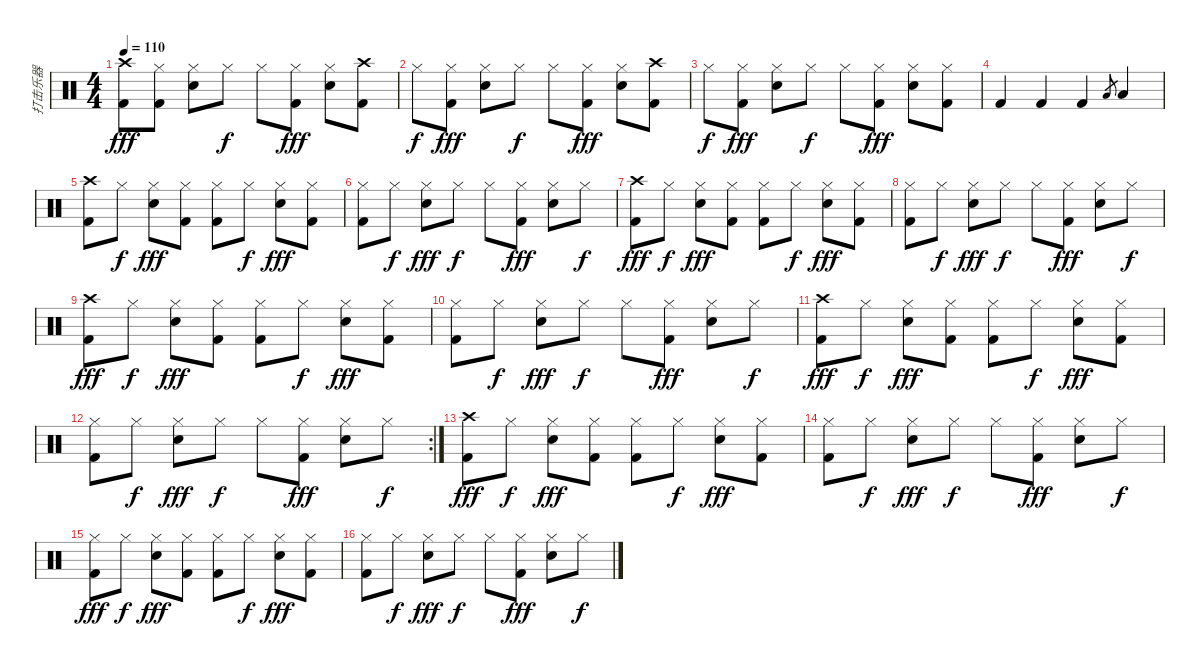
\track ("打击乐器" "打击乐器") {instrument percussion}
\staff {score}
\articulation defaults
\ts (4 4)
\tempo 110
\clef neutral
\ks c
("Crash high (hit)" "Kick (hit) 2").8{dy fff} ("Hi-Hat (closed)" "Kick (hit) 2").8 ("Hi-Hat (closed)" "Electric Snare (hit)").8 "Hi-Hat (closed)".8{dy f} "Hi-Hat (closed)".8 ("Hi-Hat (closed)" "Kick (hit) 2").8{dy fff} ("Hi-Hat (closed)" "Electric Snare (hit)").8 ("Crash high (hit)" "Kick (hit) 2").8 |
"Hi-Hat (closed)".8{dy f} ("Hi-Hat (closed)" "Kick (hit) 2").8{dy fff} ("Hi-Hat (closed)" "Electric Snare (hit)").8 "Hi-Hat (closed)".8{dy f} "Hi-Hat (closed)".8 ("Hi-Hat (closed)" "Kick (hit) 2").8{dy fff} ("Hi-Hat (closed)" "Electric Snare (hit)").8 ("Crash high (hit)" "Kick (hit) 2").8 |
"Hi-Hat (closed)".8{dy f} ("Hi-Hat (closed)" "Kick (hit) 2").8{dy fff} ("Hi-Hat (closed)" "Electric Snare (hit)").8 "Hi-Hat (closed)".8{dy f} "Hi-Hat (closed)".8 ("Hi-Hat (closed)" "Kick (hit) 2").8{dy fff} ("Hi-Hat (closed)" "Electric Snare (hit)").8 ("Hi-Hat (closed)" "Kick (hit) 2").8 |
"Kick (hit) 2".4 "Kick (hit) 2".4 "Kick (hit) 2".4 "Low Floor Tom (hit)".8{gr} "Low Floor Tom (hit)".4 |
("Crash high (hit)" "Kick (hit) 2").8 "Hi-Hat (closed)".8{dy f} ("Hi-Hat (closed)" "Electric Snare (hit)").8{dy fff} ("Hi-Hat (closed)" "Kick (hit) 2").8 ("Hi-Hat (closed)" "Kick (hit) 2").8 "Hi-Hat (closed)".8{dy f} ("Hi-Hat (closed)" "Electric Snare (hit)").8{dy fff} ("Hi-Hat (closed)" "Kick (hit) 2").8 |
("Hi-Hat (closed)" "Kick (hit) 2").8 "Hi-Hat (closed)".8{dy f} ("Hi-Hat (closed)" "Electric Snare (hit)").8{dy fff} "Hi-Hat (closed)".8{dy f} "Hi-Hat (closed)".8 ("Hi-Hat (closed)" "Kick (hit) 2").8{dy fff} ("Hi-Hat (closed)" "Electric Snare (hit)").8 "Hi-Hat (closed)".8{dy f} |
("Crash high (hit)" "Kick (hit) 2").8{dy fff} "Hi-Hat (closed)".8{dy f} ("Hi-Hat (closed)" "Electric Snare (hit)").8{dy fff} ("Hi-Hat (closed)" "Kick (hit) 2").8 ("Hi-Hat (closed)" "Kick (hit) 2").8 "Hi-Hat (closed)".8{dy f} ("Hi-Hat (closed)" "Electric Snare (hit)").8{dy fff} ("Hi-Hat (closed)" "Kick (hit) 2").8 |
("Hi-Hat (closed)" "Kick (hit) 2").8 "Hi-Hat (closed)".8{dy f} ("Hi-Hat (closed)" "Electric Snare (hit)").8{dy fff} "Hi-Hat (closed)".8{dy f} "Hi-Hat (closed)".8 ("Hi-Hat (closed)" "Kick (hit) 2").8{dy fff} ("Hi-Hat (closed)" "Electric Snare (hit)").8 "Hi-Hat (closed)".8{dy f} |
("Crash high (hit)" "Kick (hit) 2").8{dy fff} "Hi-Hat (closed)".8{dy f} ("Hi-Hat (closed)" "Electric Snare (hit)").8{dy fff} ("Hi-Hat (closed)" "Kick (hit) 2").8 ("Hi-Hat (closed)" "Kick (hit) 2").8 "Hi-Hat (closed)".8{dy f} ("Hi-Hat (closed)" "Electric Snare (hit)").8{dy fff} ("Hi-Hat (closed)" "Kick (hit) 2").8 |
("Hi-Hat (closed)" "Kick (hit) 2").8 "Hi-Hat (closed)".8{dy f} ("Hi-Hat (closed)" "Electric Snare (hit)").8{dy fff} "Hi-Hat (closed)".8{dy f} "Hi-Hat (closed)".8 ("Hi-Hat (closed)" "Kick (hit) 2").8{dy fff} ("Hi-Hat (closed)" "Electric Snare (hit)").8 "Hi-Hat (closed)".8{dy f} |
("Crash high (hit)" "Kick (hit) 2").8{dy fff} "Hi-Hat (closed)".8{dy f} ("Hi-Hat (closed)" "Electric Snare (hit)").8{dy fff} ("Hi-Hat (closed)" "Kick (hit) 2").8 ("Hi-Hat (closed)" "Kick (hit) 2").8 "Hi-Hat (closed)".8{dy f} ("Hi-Hat (closed)" "Electric Snare (hit)").8{dy fff} ("Hi-Hat (closed)" "Kick (hit) 2").8 |
\rc 2
("Hi-Hat (closed)" "Kick (hit) 2").8 "Hi-Hat (closed)".8{dy f} ("Hi-Hat (closed)" "Electric Snare (hit)").8{dy fff} "Hi-Hat (closed)".8{dy f} "Hi-Hat (closed)".8 ("Hi-Hat (closed)" "Kick (hit) 2").8{dy fff} ("Hi-Hat (closed)" "Electric Snare (hit)").8 "Hi-Hat (closed)".8{dy f} |
("Crash high (hit)" "Kick (hit) 2").8{dy fff} "Hi-Hat (closed)".8{dy f} ("Hi-Hat (closed)" "Electric Snare (hit)").8{dy fff} ("Hi-Hat (closed)" "Kick (hit) 2").8 ("Hi-Hat (closed)" "Kick (hit) 2").8 "Hi-Hat (closed)".8{dy f} ("Hi-Hat (closed)" "Electric Snare (hit)").8{dy fff} ("Hi-Hat (closed)" "Kick (hit) 2").8 |
("Hi-Hat (closed)" "Kick (hit) 2").8 "Hi-Hat (closed)".8{dy f} ("Hi-Hat (closed)" "Electric Snare (hit)").8{dy fff} "Hi-Hat (closed)".8{dy f} "Hi-Hat (closed)".8 ("Hi-Hat (closed)" "Kick (hit) 2").8{dy fff} ("Hi-Hat (closed)" "Electric Snare (hit)").8 "Hi-Hat (closed)".8{dy f} |
("Hi-Hat (closed)" "Kick (hit) 2").8{dy fff} "Hi-Hat (closed)".8{dy f} ("Hi-Hat (closed)" "Electric Snare (hit)").8{dy fff} ("Hi-Hat (closed)" "Kick (hit) 2").8 ("Hi-Hat (closed)" "Kick (hit) 2").8 "Hi-Hat (closed)".8{dy f} ("Hi-Hat (closed)" "Electric Snare (hit)").8{dy fff} ("Hi-Hat (closed)" "Kick (hit) 2").8 |
("Hi-Hat (closed)" "Kick (hit) 2").8 "Hi-Hat (closed)".8{dy f} ("Hi-Hat (closed)" "Electric Snare (hit)").8{dy fff} "Hi-Hat (closed)".8{dy f} "Hi-Hat (closed)".8 ("Hi-Hat (closed)" "Kick (hit) 2").8{dy fff} ("Hi-Hat (closed)" "Electric Snare (hit)").8 "Hi-Hat (closed)".8{dy f}
